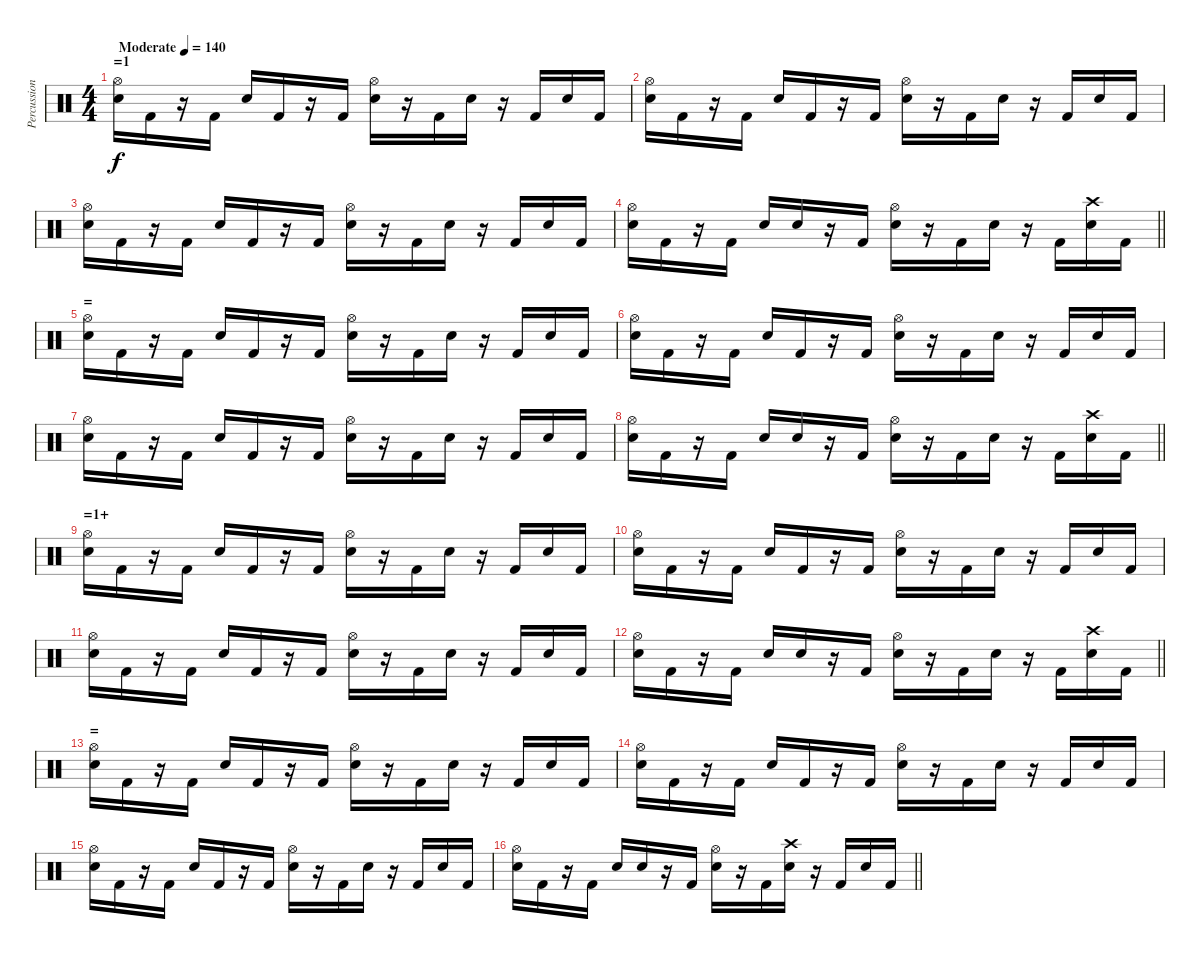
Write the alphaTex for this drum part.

\track ("Percussion" "Percussion") {instrument percussion}
\staff {score}
\articulation defaults
\ts (4 4)
\section ("" "=1")
\tempo (140 "Moderate")
\clef neutral
\ks c
("Electric Snare (hit)" "Hi-Hat (open)").16{dy f} "Kick (hit) 2".16 r.16 "Kick (hit) 2".16 "Electric Snare (hit)".16 "Kick (hit) 2".16 r.16 "Kick (hit) 2".16 ("Electric Snare (hit)" "Hi-Hat (open)").16 r.16 "Kick (hit) 2".16 "Electric Snare (hit)".16 r.16 "Kick (hit) 2".16 "Electric Snare (hit)".16 "Kick (hit) 2".16 |
("Electric Snare (hit)" "Hi-Hat (open)").16 "Kick (hit) 2".16 r.16 "Kick (hit) 2".16 "Electric Snare (hit)".16 "Kick (hit) 2".16 r.16 "Kick (hit) 2".16 ("Electric Snare (hit)" "Hi-Hat (open)").16 r.16 "Kick (hit) 2".16 "Electric Snare (hit)".16 r.16 "Kick (hit) 2".16 "Electric Snare (hit)".16 "Kick (hit) 2".16 |
("Electric Snare (hit)" "Hi-Hat (open)").16 "Kick (hit) 2".16 r.16 "Kick (hit) 2".16 "Electric Snare (hit)".16 "Kick (hit) 2".16 r.16 "Kick (hit) 2".16 ("Electric Snare (hit)" "Hi-Hat (open)").16 r.16 "Kick (hit) 2".16 "Electric Snare (hit)".16 r.16 "Kick (hit) 2".16 "Electric Snare (hit)".16 "Kick (hit) 2".16 |
\barLineRight lightlight
("Electric Snare (hit)" "Hi-Hat (open)").16 "Kick (hit) 2".16 r.16 "Kick (hit) 2".16 "Electric Snare (hit)".16 "Electric Snare (hit)".16 r.16 "Kick (hit) 2".16 ("Electric Snare (hit)" "Hi-Hat (open)").16 r.16 "Kick (hit) 2".16 "Electric Snare (hit)".16 r.16 "Kick (hit) 2".16 ("Electric Snare (hit)" "Crash high (hit)").16 "Kick (hit) 2".16 |
\section ("" "=")
("Electric Snare (hit)" "Hi-Hat (open)").16 "Kick (hit) 2".16 r.16 "Kick (hit) 2".16 "Electric Snare (hit)".16 "Kick (hit) 2".16 r.16 "Kick (hit) 2".16 ("Electric Snare (hit)" "Hi-Hat (open)").16 r.16 "Kick (hit) 2".16 "Electric Snare (hit)".16 r.16 "Kick (hit) 2".16 "Electric Snare (hit)".16 "Kick (hit) 2".16 |
("Electric Snare (hit)" "Hi-Hat (open)").16 "Kick (hit) 2".16 r.16 "Kick (hit) 2".16 "Electric Snare (hit)".16 "Kick (hit) 2".16 r.16 "Kick (hit) 2".16 ("Electric Snare (hit)" "Hi-Hat (open)").16 r.16 "Kick (hit) 2".16 "Electric Snare (hit)".16 r.16 "Kick (hit) 2".16 "Electric Snare (hit)".16 "Kick (hit) 2".16 |
("Electric Snare (hit)" "Hi-Hat (open)").16 "Kick (hit) 2".16 r.16 "Kick (hit) 2".16 "Electric Snare (hit)".16 "Kick (hit) 2".16 r.16 "Kick (hit) 2".16 ("Electric Snare (hit)" "Hi-Hat (open)").16 r.16 "Kick (hit) 2".16 "Electric Snare (hit)".16 r.16 "Kick (hit) 2".16 "Electric Snare (hit)".16 "Kick (hit) 2".16 |
\barLineRight lightlight
("Electric Snare (hit)" "Hi-Hat (open)").16 "Kick (hit) 2".16 r.16 "Kick (hit) 2".16 "Electric Snare (hit)".16 "Electric Snare (hit)".16 r.16 "Kick (hit) 2".16 ("Electric Snare (hit)" "Hi-Hat (open)").16 r.16 "Kick (hit) 2".16 "Electric Snare (hit)".16 r.16 "Kick (hit) 2".16 ("Electric Snare (hit)" "Crash high (hit)").16 "Kick (hit) 2".16 |
\section ("" "=1+")
("Electric Snare (hit)" "Hi-Hat (open)").16 "Kick (hit) 2".16 r.16 "Kick (hit) 2".16 "Electric Snare (hit)".16 "Kick (hit) 2".16 r.16 "Kick (hit) 2".16 ("Electric Snare (hit)" "Hi-Hat (open)").16 r.16 "Kick (hit) 2".16 "Electric Snare (hit)".16 r.16 "Kick (hit) 2".16 "Electric Snare (hit)".16 "Kick (hit) 2".16 |
("Electric Snare (hit)" "Hi-Hat (open)").16 "Kick (hit) 2".16 r.16 "Kick (hit) 2".16 "Electric Snare (hit)".16 "Kick (hit) 2".16 r.16 "Kick (hit) 2".16 ("Electric Snare (hit)" "Hi-Hat (open)").16 r.16 "Kick (hit) 2".16 "Electric Snare (hit)".16 r.16 "Kick (hit) 2".16 "Electric Snare (hit)".16 "Kick (hit) 2".16 |
("Electric Snare (hit)" "Hi-Hat (open)").16 "Kick (hit) 2".16 r.16 "Kick (hit) 2".16 "Electric Snare (hit)".16 "Kick (hit) 2".16 r.16 "Kick (hit) 2".16 ("Electric Snare (hit)" "Hi-Hat (open)").16 r.16 "Kick (hit) 2".16 "Electric Snare (hit)".16 r.16 "Kick (hit) 2".16 "Electric Snare (hit)".16 "Kick (hit) 2".16 |
\barLineRight lightlight
("Electric Snare (hit)" "Hi-Hat (open)").16 "Kick (hit) 2".16 r.16 "Kick (hit) 2".16 "Electric Snare (hit)".16 "Electric Snare (hit)".16 r.16 "Kick (hit) 2".16 ("Electric Snare (hit)" "Hi-Hat (open)").16 r.16 "Kick (hit) 2".16 "Electric Snare (hit)".16 r.16 "Kick (hit) 2".16 ("Electric Snare (hit)" "Crash high (hit)").16 "Kick (hit) 2".16 |
\section ("" "=")
("Electric Snare (hit)" "Hi-Hat (open)").16 "Kick (hit) 2".16 r.16 "Kick (hit) 2".16 "Electric Snare (hit)".16 "Kick (hit) 2".16 r.16 "Kick (hit) 2".16 ("Electric Snare (hit)" "Hi-Hat (open)").16 r.16 "Kick (hit) 2".16 "Electric Snare (hit)".16 r.16 "Kick (hit) 2".16 "Electric Snare (hit)".16 "Kick (hit) 2".16 |
("Electric Snare (hit)" "Hi-Hat (open)").16 "Kick (hit) 2".16 r.16 "Kick (hit) 2".16 "Electric Snare (hit)".16 "Kick (hit) 2".16 r.16 "Kick (hit) 2".16 ("Electric Snare (hit)" "Hi-Hat (open)").16 r.16 "Kick (hit) 2".16 "Electric Snare (hit)".16 r.16 "Kick (hit) 2".16 "Electric Snare (hit)".16 "Kick (hit) 2".16 |
("Electric Snare (hit)" "Hi-Hat (open)").16 "Kick (hit) 2".16 r.16 "Kick (hit) 2".16 "Electric Snare (hit)".16 "Kick (hit) 2".16 r.16 "Kick (hit) 2".16 ("Electric Snare (hit)" "Hi-Hat (open)").16 r.16 "Kick (hit) 2".16 "Electric Snare (hit)".16 r.16 "Kick (hit) 2".16 "Electric Snare (hit)".16 "Kick (hit) 2".16 |
\barLineRight lightlight
("Electric Snare (hit)" "Hi-Hat (open)").16 "Kick (hit) 2".16 r.16 "Kick (hit) 2".16 "Electric Snare (hit)".16 "Electric Snare (hit)".16 r.16 "Kick (hit) 2".16 ("Electric Snare (hit)" "Hi-Hat (open)").16 r.16 "Kick (hit) 2".16 ("Electric Snare (hit)" "Crash high (hit)").16 r.16 "Kick (hit) 2".16 "Electric Snare (hit)".16 "Kick (hit) 2".16
